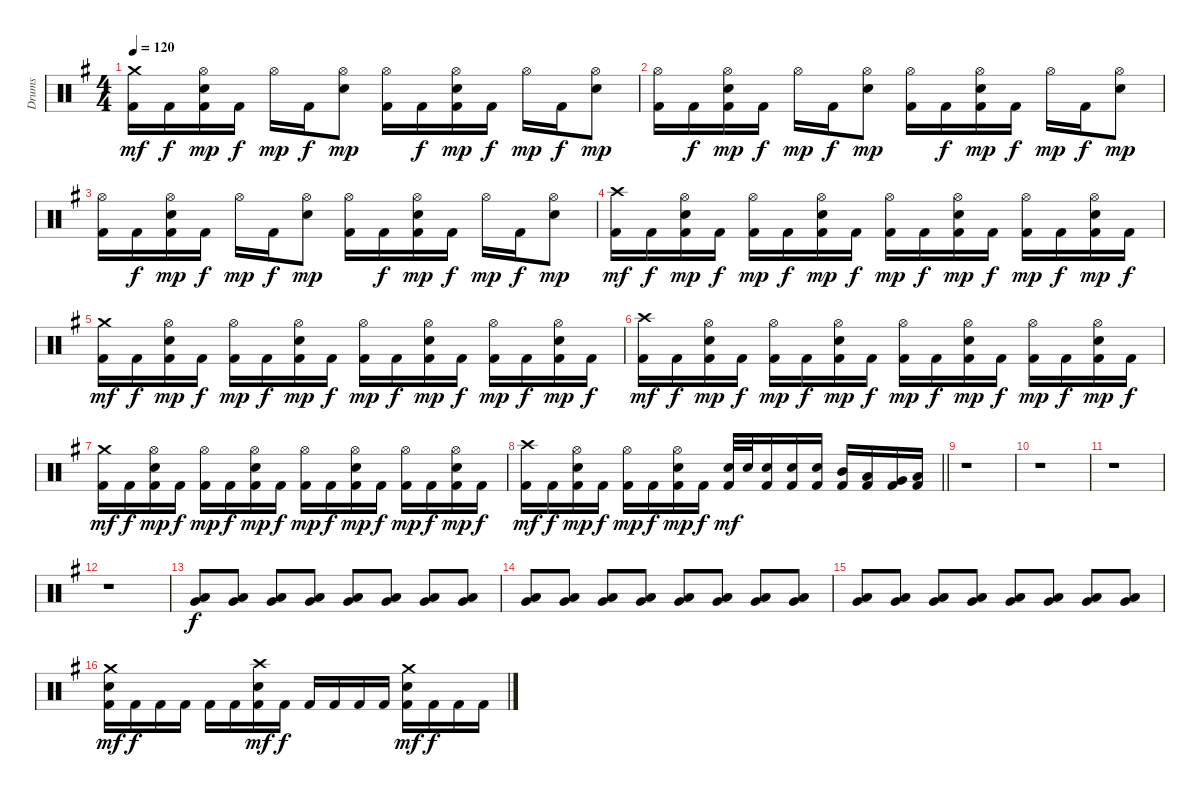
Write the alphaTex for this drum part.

\track ("Drums" "Drums") {instrument percussion}
\staff {score}
\articulation defaults
\ts (4 4)
\tempo 120
\clef neutral
\ks eminor
("Crash medium (hit)" "Kick (hit) 2").16{dy mf} "Kick (hit) 2".16{dy f} ("Hi-Hat (open)" "Electric Snare (hit)" "Kick (hit) 2").16{dy mp} "Kick (hit) 2".16{dy f} "Hi-Hat (open)".16{dy mp} "Kick (hit) 2".16{dy f} ("Hi-Hat (open)" "Electric Snare (hit)").8{dy mp} ("Hi-Hat (open)" "Kick (hit) 2").16 "Kick (hit) 2".16{dy f} ("Hi-Hat (open)" "Electric Snare (hit)" "Kick (hit) 2").16{dy mp} "Kick (hit) 2".16{dy f} "Hi-Hat (open)".16{dy mp} "Kick (hit) 2".16{dy f} ("Hi-Hat (open)" "Electric Snare (hit)").8{dy mp} |
("Hi-Hat (open)" "Kick (hit) 2").16 "Kick (hit) 2".16{dy f} ("Hi-Hat (open)" "Electric Snare (hit)" "Kick (hit) 2").16{dy mp} "Kick (hit) 2".16{dy f} "Hi-Hat (open)".16{dy mp} "Kick (hit) 2".16{dy f} ("Hi-Hat (open)" "Electric Snare (hit)").8{dy mp} ("Hi-Hat (open)" "Kick (hit) 2").16 "Kick (hit) 2".16{dy f} ("Hi-Hat (open)" "Electric Snare (hit)" "Kick (hit) 2").16{dy mp} "Kick (hit) 2".16{dy f} "Hi-Hat (open)".16{dy mp} "Kick (hit) 2".16{dy f} ("Hi-Hat (open)" "Electric Snare (hit)").8{dy mp} |
("Hi-Hat (open)" "Kick (hit) 2").16 "Kick (hit) 2".16{dy f} ("Hi-Hat (open)" "Electric Snare (hit)" "Kick (hit) 2").16{dy mp} "Kick (hit) 2".16{dy f} "Hi-Hat (open)".16{dy mp} "Kick (hit) 2".16{dy f} ("Hi-Hat (open)" "Electric Snare (hit)").8{dy mp} ("Hi-Hat (open)" "Kick (hit) 2").16 "Kick (hit) 2".16{dy f} ("Hi-Hat (open)" "Electric Snare (hit)" "Kick (hit) 2").16{dy mp} "Kick (hit) 2".16{dy f} "Hi-Hat (open)".16{dy mp} "Kick (hit) 2".16{dy f} ("Hi-Hat (open)" "Electric Snare (hit)").8{dy mp} |
("Crash high (hit)" "Kick (hit) 2").16{dy mf} "Kick (hit) 2".16{dy f} ("Hi-Hat (open)" "Electric Snare (hit)" "Kick (hit) 2").16{dy mp} "Kick (hit) 2".16{dy f} ("Hi-Hat (open)" "Kick (hit) 2").16{dy mp} "Kick (hit) 2".16{dy f} ("Hi-Hat (open)" "Electric Snare (hit)" "Kick (hit) 2").16{dy mp} "Kick (hit) 2".16{dy f} ("Hi-Hat (open)" "Kick (hit) 2").16{dy mp} "Kick (hit) 2".16{dy f} ("Hi-Hat (open)" "Electric Snare (hit)" "Kick (hit) 2").16{dy mp} "Kick (hit) 2".16{dy f} ("Hi-Hat (open)" "Kick (hit) 2").16{dy mp} "Kick (hit) 2".16{dy f} ("Hi-Hat (open)" "Electric Snare (hit)" "Kick (hit) 2").16{dy mp} "Kick (hit) 2".16{dy f} |
("Crash medium (hit)" "Kick (hit) 2").16{dy mf} "Kick (hit) 2".16{dy f} ("Hi-Hat (open)" "Electric Snare (hit)" "Kick (hit) 2").16{dy mp} "Kick (hit) 2".16{dy f} ("Hi-Hat (open)" "Kick (hit) 2").16{dy mp} "Kick (hit) 2".16{dy f} ("Hi-Hat (open)" "Electric Snare (hit)" "Kick (hit) 2").16{dy mp} "Kick (hit) 2".16{dy f} ("Hi-Hat (open)" "Kick (hit) 2").16{dy mp} "Kick (hit) 2".16{dy f} ("Hi-Hat (open)" "Electric Snare (hit)" "Kick (hit) 2").16{dy mp} "Kick (hit) 2".16{dy f} ("Hi-Hat (open)" "Kick (hit) 2").16{dy mp} "Kick (hit) 2".16{dy f} ("Hi-Hat (open)" "Electric Snare (hit)" "Kick (hit) 2").16{dy mp} "Kick (hit) 2".16{dy f} |
("Crash high (hit)" "Kick (hit) 2").16{dy mf} "Kick (hit) 2".16{dy f} ("Hi-Hat (open)" "Electric Snare (hit)" "Kick (hit) 2").16{dy mp} "Kick (hit) 2".16{dy f} ("Hi-Hat (open)" "Kick (hit) 2").16{dy mp} "Kick (hit) 2".16{dy f} ("Hi-Hat (open)" "Electric Snare (hit)" "Kick (hit) 2").16{dy mp} "Kick (hit) 2".16{dy f} ("Hi-Hat (open)" "Kick (hit) 2").16{dy mp} "Kick (hit) 2".16{dy f} ("Hi-Hat (open)" "Electric Snare (hit)" "Kick (hit) 2").16{dy mp} "Kick (hit) 2".16{dy f} ("Hi-Hat (open)" "Kick (hit) 2").16{dy mp} "Kick (hit) 2".16{dy f} ("Hi-Hat (open)" "Electric Snare (hit)" "Kick (hit) 2").16{dy mp} "Kick (hit) 2".16{dy f} |
("Crash medium (hit)" "Kick (hit) 2").16{dy mf} "Kick (hit) 2".16{dy f} ("Hi-Hat (open)" "Electric Snare (hit)" "Kick (hit) 2").16{dy mp} "Kick (hit) 2".16{dy f} ("Hi-Hat (open)" "Kick (hit) 2").16{dy mp} "Kick (hit) 2".16{dy f} ("Hi-Hat (open)" "Electric Snare (hit)" "Kick (hit) 2").16{dy mp} "Kick (hit) 2".16{dy f} ("Hi-Hat (open)" "Kick (hit) 2").16{dy mp} "Kick (hit) 2".16{dy f} ("Hi-Hat (open)" "Electric Snare (hit)" "Kick (hit) 2").16{dy mp} "Kick (hit) 2".16{dy f} ("Hi-Hat (open)" "Kick (hit) 2").16{dy mp} "Kick (hit) 2".16{dy f} ("Hi-Hat (open)" "Electric Snare (hit)" "Kick (hit) 2").16{dy mp} "Kick (hit) 2".16{dy f} |
\barLineRight lightlight
("Crash high (hit)" "Kick (hit) 2").16{dy mf} "Kick (hit) 2".16{dy f} ("Hi-Hat (open)" "Electric Snare (hit)" "Kick (hit) 2").16{dy mp} "Kick (hit) 2".16{dy f} ("Hi-Hat (open)" "Kick (hit) 2").16{dy mp} "Kick (hit) 2".16{dy f} ("Hi-Hat (open)" "Electric Snare (hit)" "Kick (hit) 2").16{dy mp} "Kick (hit) 2".16{dy f} ("Electric Snare (hit)" "Kick (hit) 2").32{dy mf} "Electric Snare (hit)".32 ("Electric Snare (hit)" "Kick (hit) 2").16 ("Electric Snare (hit)" "Kick (hit) 2").16 ("Electric Snare (hit)" "Kick (hit) 2").16 ("Mid Tom (hit)" "Kick (hit) 2").16 ("Low Tom (hit)" "Kick (hit) 2").16 ("Very Low Tom (hit)" "Kick (hit) 2").16 ("Low Floor Tom (hit)" "Kick (hit) 2").16 |
\section ("" "")
r.1 |
r.1 |
r.1 |
r.1{volume 2} |
("Very Low Tom (hit)" "Low Floor Tom (hit)").8{dy f volume 10} ("Very Low Tom (hit)" "Low Floor Tom (hit)").8 ("Very Low Tom (hit)" "Low Floor Tom (hit)").8 ("Very Low Tom (hit)" "Low Floor Tom (hit)").8 ("Very Low Tom (hit)" "Low Floor Tom (hit)").8 ("Very Low Tom (hit)" "Low Floor Tom (hit)").8 ("Very Low Tom (hit)" "Low Floor Tom (hit)").8 ("Very Low Tom (hit)" "Low Floor Tom (hit)").8 |
("Very Low Tom (hit)" "Low Floor Tom (hit)").8 ("Very Low Tom (hit)" "Low Floor Tom (hit)").8 ("Very Low Tom (hit)" "Low Floor Tom (hit)").8 ("Very Low Tom (hit)" "Low Floor Tom (hit)").8 ("Very Low Tom (hit)" "Low Floor Tom (hit)").8 ("Very Low Tom (hit)" "Low Floor Tom (hit)").8 ("Very Low Tom (hit)" "Low Floor Tom (hit)").8 ("Very Low Tom (hit)" "Low Floor Tom (hit)").8 |
("Very Low Tom (hit)" "Low Floor Tom (hit)").8 ("Very Low Tom (hit)" "Low Floor Tom (hit)").8 ("Very Low Tom (hit)" "Low Floor Tom (hit)").8 ("Very Low Tom (hit)" "Low Floor Tom (hit)").8 ("Very Low Tom (hit)" "Low Floor Tom (hit)").8 ("Very Low Tom (hit)" "Low Floor Tom (hit)").8 ("Very Low Tom (hit)" "Low Floor Tom (hit)").8 ("Very Low Tom (hit)" "Low Floor Tom (hit)").8 |
("Crash medium (hit)" "Electric Snare (hit)" "Kick (hit) 2").16{dy mf} "Kick (hit) 2".16{dy f} "Kick (hit) 2".16 "Kick (hit) 2".16 "Kick (hit) 2".16 "Kick (hit) 2".16 ("Crash high (hit)" "Electric Snare (hit)" "Kick (hit) 2").16{dy mf} "Kick (hit) 2".16{dy f} "Kick (hit) 2".16 "Kick (hit) 2".16 "Kick (hit) 2".16 "Kick (hit) 2".16 ("Crash medium (hit)" "Electric Snare (hit)" "Kick (hit) 2").16{dy mf} "Kick (hit) 2".16{dy f} "Kick (hit) 2".16 "Kick (hit) 2".16
